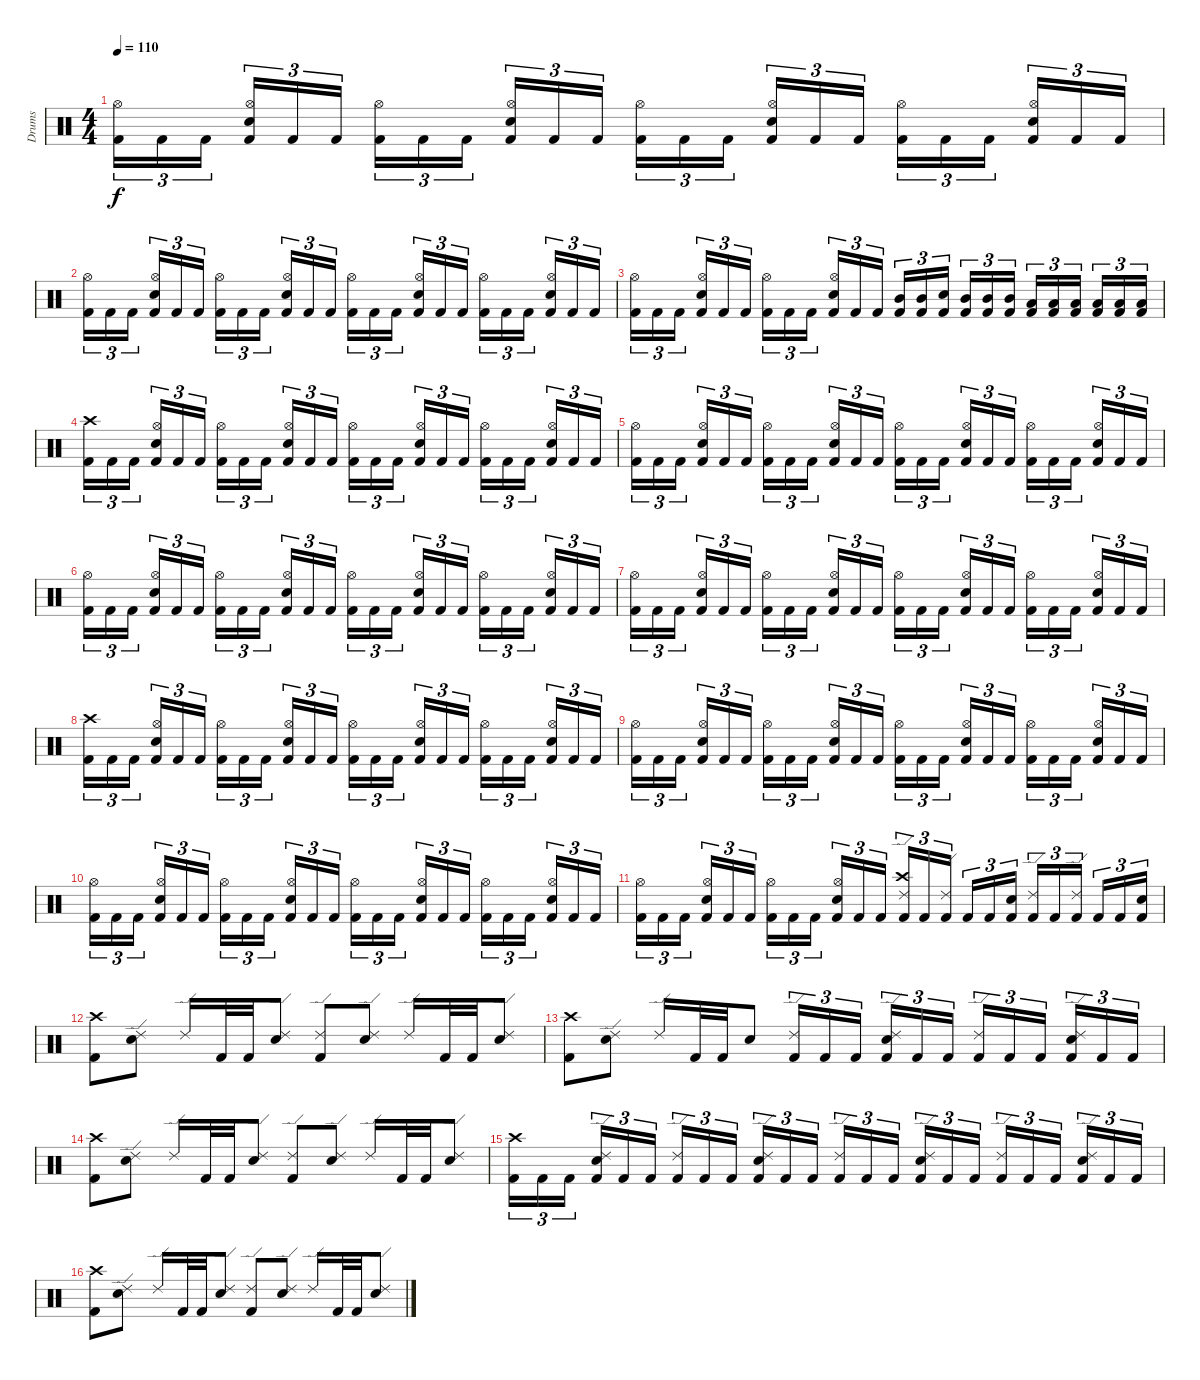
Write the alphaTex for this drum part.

\track ("Drums" "Drums") {instrument percussion}
\staff {score}
\articulation defaults
\ts (4 4)
\tempo 110
\clef neutral
\ks c
("Kick (hit) 2" "Hi-Hat (open)").16{tu (3 2) dy f} "Kick (hit) 2".16{tu (3 2)} "Kick (hit) 2".16{tu (3 2)} ("Kick (hit) 2" "Snare (hit) 2" "Hi-Hat (open)").16{tu (3 2)} "Kick (hit) 2".16{tu (3 2)} "Kick (hit) 2".16{tu (3 2)} ("Kick (hit) 2" "Hi-Hat (open)").16{tu (3 2)} "Kick (hit) 2".16{tu (3 2)} "Kick (hit) 2".16{tu (3 2)} ("Kick (hit) 2" "Snare (hit) 2" "Hi-Hat (open)").16{tu (3 2)} "Kick (hit) 2".16{tu (3 2)} "Kick (hit) 2".16{tu (3 2)} ("Kick (hit) 2" "Hi-Hat (open)").16{tu (3 2)} "Kick (hit) 2".16{tu (3 2)} "Kick (hit) 2".16{tu (3 2)} ("Kick (hit) 2" "Snare (hit) 2" "Hi-Hat (open)").16{tu (3 2)} "Kick (hit) 2".16{tu (3 2)} "Kick (hit) 2".16{tu (3 2)} ("Kick (hit) 2" "Hi-Hat (open)").16{tu (3 2)} "Kick (hit) 2".16{tu (3 2)} "Kick (hit) 2".16{tu (3 2)} ("Kick (hit) 2" "Snare (hit) 2" "Hi-Hat (open)").16{tu (3 2)} "Kick (hit) 2".16{tu (3 2)} "Kick (hit) 2".16{tu (3 2)} |
("Kick (hit) 2" "Hi-Hat (open)").16{tu (3 2)} "Kick (hit) 2".16{tu (3 2)} "Kick (hit) 2".16{tu (3 2)} ("Kick (hit) 2" "Snare (hit) 2" "Hi-Hat (open)").16{tu (3 2)} "Kick (hit) 2".16{tu (3 2)} "Kick (hit) 2".16{tu (3 2)} ("Kick (hit) 2" "Hi-Hat (open)").16{tu (3 2)} "Kick (hit) 2".16{tu (3 2)} "Kick (hit) 2".16{tu (3 2)} ("Kick (hit) 2" "Snare (hit) 2" "Hi-Hat (open)").16{tu (3 2)} "Kick (hit) 2".16{tu (3 2)} "Kick (hit) 2".16{tu (3 2)} ("Kick (hit) 2" "Hi-Hat (open)").16{tu (3 2)} "Kick (hit) 2".16{tu (3 2)} "Kick (hit) 2".16{tu (3 2)} ("Kick (hit) 2" "Snare (hit) 2" "Hi-Hat (open)").16{tu (3 2)} "Kick (hit) 2".16{tu (3 2)} "Kick (hit) 2".16{tu (3 2)} ("Kick (hit) 2" "Hi-Hat (open)").16{tu (3 2)} "Kick (hit) 2".16{tu (3 2)} "Kick (hit) 2".16{tu (3 2)} ("Kick (hit) 2" "Snare (hit) 2" "Hi-Hat (open)").16{tu (3 2)} "Kick (hit) 2".16{tu (3 2)} "Kick (hit) 2".16{tu (3 2)} |
("Kick (hit) 2" "Hi-Hat (open)").16{tu (3 2)} "Kick (hit) 2".16{tu (3 2)} "Kick (hit) 2".16{tu (3 2)} ("Kick (hit) 2" "Snare (hit) 2" "Hi-Hat (open)").16{tu (3 2)} "Kick (hit) 2".16{tu (3 2)} "Kick (hit) 2".16{tu (3 2)} ("Kick (hit) 2" "Hi-Hat (open)").16{tu (3 2)} "Kick (hit) 2".16{tu (3 2)} "Kick (hit) 2".16{tu (3 2)} ("Kick (hit) 2" "Snare (hit) 2" "Hi-Hat (open)").16{tu (3 2)} "Kick (hit) 2".16{tu (3 2)} "Kick (hit) 2".16{tu (3 2)} ("Kick (hit) 2" "Mid Tom (hit)").16{tu (3 2)} ("Kick (hit) 2" "Mid Tom (hit)").16{tu (3 2)} ("Kick (hit) 2" "Snare (hit) 2").16{tu (3 2)} ("Kick (hit) 2" "Mid Tom (hit)").16{tu (3 2)} ("Kick (hit) 2" "Mid Tom (hit)").16{tu (3 2)} ("Kick (hit) 2" "Mid Tom (hit)").16{tu (3 2)} ("Kick (hit) 2" "Low Tom (hit)").16{tu (3 2)} ("Kick (hit) 2" "Low Tom (hit)").16{tu (3 2)} ("Kick (hit) 2" "Low Tom (hit)").16{tu (3 2)} ("Kick (hit) 2" "Low Tom (hit)").16{tu (3 2)} ("Kick (hit) 2" "Low Tom (hit)").16{tu (3 2)} ("Kick (hit) 2" "Low Tom (hit)").16{tu (3 2)} |
("Kick (hit) 2" "Crash high (hit)").16{tu (3 2)} "Kick (hit) 2".16{tu (3 2)} "Kick (hit) 2".16{tu (3 2)} ("Kick (hit) 2" "Snare (hit) 2" "Hi-Hat (open)").16{tu (3 2)} "Kick (hit) 2".16{tu (3 2)} "Kick (hit) 2".16{tu (3 2)} ("Kick (hit) 2" "Hi-Hat (open)").16{tu (3 2)} "Kick (hit) 2".16{tu (3 2)} "Kick (hit) 2".16{tu (3 2)} ("Kick (hit) 2" "Snare (hit) 2" "Hi-Hat (open)").16{tu (3 2)} "Kick (hit) 2".16{tu (3 2)} "Kick (hit) 2".16{tu (3 2)} ("Kick (hit) 2" "Hi-Hat (open)").16{tu (3 2)} "Kick (hit) 2".16{tu (3 2)} "Kick (hit) 2".16{tu (3 2)} ("Kick (hit) 2" "Snare (hit) 2" "Hi-Hat (open)").16{tu (3 2)} "Kick (hit) 2".16{tu (3 2)} "Kick (hit) 2".16{tu (3 2)} ("Kick (hit) 2" "Hi-Hat (open)").16{tu (3 2)} "Kick (hit) 2".16{tu (3 2)} "Kick (hit) 2".16{tu (3 2)} ("Kick (hit) 2" "Snare (hit) 2" "Hi-Hat (open)").16{tu (3 2)} "Kick (hit) 2".16{tu (3 2)} "Kick (hit) 2".16{tu (3 2)} |
("Kick (hit) 2" "Hi-Hat (open)").16{tu (3 2)} "Kick (hit) 2".16{tu (3 2)} "Kick (hit) 2".16{tu (3 2)} ("Kick (hit) 2" "Snare (hit) 2" "Hi-Hat (open)").16{tu (3 2)} "Kick (hit) 2".16{tu (3 2)} "Kick (hit) 2".16{tu (3 2)} ("Kick (hit) 2" "Hi-Hat (open)").16{tu (3 2)} "Kick (hit) 2".16{tu (3 2)} "Kick (hit) 2".16{tu (3 2)} ("Kick (hit) 2" "Snare (hit) 2" "Hi-Hat (open)").16{tu (3 2)} "Kick (hit) 2".16{tu (3 2)} "Kick (hit) 2".16{tu (3 2)} ("Kick (hit) 2" "Hi-Hat (open)").16{tu (3 2)} "Kick (hit) 2".16{tu (3 2)} "Kick (hit) 2".16{tu (3 2)} ("Kick (hit) 2" "Snare (hit) 2" "Hi-Hat (open)").16{tu (3 2)} "Kick (hit) 2".16{tu (3 2)} "Kick (hit) 2".16{tu (3 2)} ("Kick (hit) 2" "Hi-Hat (open)").16{tu (3 2)} "Kick (hit) 2".16{tu (3 2)} "Kick (hit) 2".16{tu (3 2)} ("Kick (hit) 2" "Snare (hit) 2" "Hi-Hat (open)").16{tu (3 2)} "Kick (hit) 2".16{tu (3 2)} "Kick (hit) 2".16{tu (3 2)} |
("Kick (hit) 2" "Hi-Hat (open)").16{tu (3 2)} "Kick (hit) 2".16{tu (3 2)} "Kick (hit) 2".16{tu (3 2)} ("Kick (hit) 2" "Snare (hit) 2" "Hi-Hat (open)").16{tu (3 2)} "Kick (hit) 2".16{tu (3 2)} "Kick (hit) 2".16{tu (3 2)} ("Kick (hit) 2" "Hi-Hat (open)").16{tu (3 2)} "Kick (hit) 2".16{tu (3 2)} "Kick (hit) 2".16{tu (3 2)} ("Kick (hit) 2" "Snare (hit) 2" "Hi-Hat (open)").16{tu (3 2)} "Kick (hit) 2".16{tu (3 2)} "Kick (hit) 2".16{tu (3 2)} ("Kick (hit) 2" "Hi-Hat (open)").16{tu (3 2)} "Kick (hit) 2".16{tu (3 2)} "Kick (hit) 2".16{tu (3 2)} ("Kick (hit) 2" "Snare (hit) 2" "Hi-Hat (open)").16{tu (3 2)} "Kick (hit) 2".16{tu (3 2)} "Kick (hit) 2".16{tu (3 2)} ("Kick (hit) 2" "Hi-Hat (open)").16{tu (3 2)} "Kick (hit) 2".16{tu (3 2)} "Kick (hit) 2".16{tu (3 2)} ("Kick (hit) 2" "Snare (hit) 2" "Hi-Hat (open)").16{tu (3 2)} "Kick (hit) 2".16{tu (3 2)} "Kick (hit) 2".16{tu (3 2)} |
("Kick (hit) 2" "Hi-Hat (open)").16{tu (3 2)} "Kick (hit) 2".16{tu (3 2)} "Kick (hit) 2".16{tu (3 2)} ("Kick (hit) 2" "Snare (hit) 2" "Hi-Hat (open)").16{tu (3 2)} "Kick (hit) 2".16{tu (3 2)} "Kick (hit) 2".16{tu (3 2)} ("Kick (hit) 2" "Hi-Hat (open)").16{tu (3 2)} "Kick (hit) 2".16{tu (3 2)} "Kick (hit) 2".16{tu (3 2)} ("Kick (hit) 2" "Snare (hit) 2" "Hi-Hat (open)").16{tu (3 2)} "Kick (hit) 2".16{tu (3 2)} "Kick (hit) 2".16{tu (3 2)} ("Kick (hit) 2" "Hi-Hat (open)").16{tu (3 2)} "Kick (hit) 2".16{tu (3 2)} "Kick (hit) 2".16{tu (3 2)} ("Kick (hit) 2" "Snare (hit) 2" "Hi-Hat (open)").16{tu (3 2)} "Kick (hit) 2".16{tu (3 2)} "Kick (hit) 2".16{tu (3 2)} ("Kick (hit) 2" "Hi-Hat (open)").16{tu (3 2)} "Kick (hit) 2".16{tu (3 2)} "Kick (hit) 2".16{tu (3 2)} ("Kick (hit) 2" "Snare (hit) 2" "Hi-Hat (open)").16{tu (3 2)} "Kick (hit) 2".16{tu (3 2)} "Kick (hit) 2".16{tu (3 2)} |
("Kick (hit) 2" "Crash high (hit)").16{tu (3 2)} "Kick (hit) 2".16{tu (3 2)} "Kick (hit) 2".16{tu (3 2)} ("Kick (hit) 2" "Snare (hit) 2" "Hi-Hat (open)").16{tu (3 2)} "Kick (hit) 2".16{tu (3 2)} "Kick (hit) 2".16{tu (3 2)} ("Kick (hit) 2" "Hi-Hat (open)").16{tu (3 2)} "Kick (hit) 2".16{tu (3 2)} "Kick (hit) 2".16{tu (3 2)} ("Kick (hit) 2" "Snare (hit) 2" "Hi-Hat (open)").16{tu (3 2)} "Kick (hit) 2".16{tu (3 2)} "Kick (hit) 2".16{tu (3 2)} ("Kick (hit) 2" "Hi-Hat (open)").16{tu (3 2)} "Kick (hit) 2".16{tu (3 2)} "Kick (hit) 2".16{tu (3 2)} ("Kick (hit) 2" "Snare (hit) 2" "Hi-Hat (open)").16{tu (3 2)} "Kick (hit) 2".16{tu (3 2)} "Kick (hit) 2".16{tu (3 2)} ("Kick (hit) 2" "Hi-Hat (open)").16{tu (3 2)} "Kick (hit) 2".16{tu (3 2)} "Kick (hit) 2".16{tu (3 2)} ("Kick (hit) 2" "Snare (hit) 2" "Hi-Hat (open)").16{tu (3 2)} "Kick (hit) 2".16{tu (3 2)} "Kick (hit) 2".16{tu (3 2)} |
("Kick (hit) 2" "Hi-Hat (open)").16{tu (3 2)} "Kick (hit) 2".16{tu (3 2)} "Kick (hit) 2".16{tu (3 2)} ("Kick (hit) 2" "Snare (hit) 2" "Hi-Hat (open)").16{tu (3 2)} "Kick (hit) 2".16{tu (3 2)} "Kick (hit) 2".16{tu (3 2)} ("Kick (hit) 2" "Hi-Hat (open)").16{tu (3 2)} "Kick (hit) 2".16{tu (3 2)} "Kick (hit) 2".16{tu (3 2)} ("Kick (hit) 2" "Snare (hit) 2" "Hi-Hat (open)").16{tu (3 2)} "Kick (hit) 2".16{tu (3 2)} "Kick (hit) 2".16{tu (3 2)} ("Kick (hit) 2" "Hi-Hat (open)").16{tu (3 2)} "Kick (hit) 2".16{tu (3 2)} "Kick (hit) 2".16{tu (3 2)} ("Kick (hit) 2" "Snare (hit) 2" "Hi-Hat (open)").16{tu (3 2)} "Kick (hit) 2".16{tu (3 2)} "Kick (hit) 2".16{tu (3 2)} ("Kick (hit) 2" "Hi-Hat (open)").16{tu (3 2)} "Kick (hit) 2".16{tu (3 2)} "Kick (hit) 2".16{tu (3 2)} ("Kick (hit) 2" "Snare (hit) 2" "Hi-Hat (open)").16{tu (3 2)} "Kick (hit) 2".16{tu (3 2)} "Kick (hit) 2".16{tu (3 2)} |
("Kick (hit) 2" "Hi-Hat (open)").16{tu (3 2)} "Kick (hit) 2".16{tu (3 2)} "Kick (hit) 2".16{tu (3 2)} ("Kick (hit) 2" "Snare (hit) 2" "Hi-Hat (open)").16{tu (3 2)} "Kick (hit) 2".16{tu (3 2)} "Kick (hit) 2".16{tu (3 2)} ("Kick (hit) 2" "Hi-Hat (open)").16{tu (3 2)} "Kick (hit) 2".16{tu (3 2)} "Kick (hit) 2".16{tu (3 2)} ("Kick (hit) 2" "Snare (hit) 2" "Hi-Hat (open)").16{tu (3 2)} "Kick (hit) 2".16{tu (3 2)} "Kick (hit) 2".16{tu (3 2)} ("Kick (hit) 2" "Hi-Hat (open)").16{tu (3 2)} "Kick (hit) 2".16{tu (3 2)} "Kick (hit) 2".16{tu (3 2)} ("Kick (hit) 2" "Snare (hit) 2" "Hi-Hat (open)").16{tu (3 2)} "Kick (hit) 2".16{tu (3 2)} "Kick (hit) 2".16{tu (3 2)} ("Kick (hit) 2" "Hi-Hat (open)").16{tu (3 2)} "Kick (hit) 2".16{tu (3 2)} "Kick (hit) 2".16{tu (3 2)} ("Kick (hit) 2" "Snare (hit) 2" "Hi-Hat (open)").16{tu (3 2)} "Kick (hit) 2".16{tu (3 2)} "Kick (hit) 2".16{tu (3 2)} |
("Kick (hit) 2" "Hi-Hat (open)").16{tu (3 2)} "Kick (hit) 2".16{tu (3 2)} "Kick (hit) 2".16{tu (3 2)} ("Kick (hit) 2" "Snare (hit) 2" "Hi-Hat (open)").16{tu (3 2)} "Kick (hit) 2".16{tu (3 2)} "Kick (hit) 2".16{tu (3 2)} ("Kick (hit) 2" "Hi-Hat (open)").16{tu (3 2)} "Kick (hit) 2".16{tu (3 2)} "Kick (hit) 2".16{tu (3 2)} ("Kick (hit) 2" "Snare (hit) 2" "Hi-Hat (open)").16{tu (3 2)} "Kick (hit) 2".16{tu (3 2)} "Kick (hit) 2".16{tu (3 2)} ("Kick (hit) 2" "Ride (edge) 2" "Crash high (hit)").16{tu (3 2)} "Kick (hit) 2".16{tu (3 2)} ("Kick (hit) 2" "Ride (edge) 2").16{tu (3 2)} "Kick (hit) 2".16{tu (3 2)} "Kick (hit) 2".16{tu (3 2)} ("Kick (hit) 2" "Snare (hit) 2").16{tu (3 2)} ("Kick (hit) 2" "Ride (edge) 2").16{tu (3 2)} "Kick (hit) 2".16{tu (3 2)} ("Kick (hit) 2" "Ride (edge) 2").16{tu (3 2)} "Kick (hit) 2".16{tu (3 2)} "Kick (hit) 2".16{tu (3 2)} ("Kick (hit) 2" "Snare (hit) 2").16{tu (3 2)} |
("Kick (hit) 2" "Crash high (hit)").8 ("Snare (hit) 2" "Ride (edge) 2").8 "Ride (edge) 2".16 "Kick (hit) 2".32 "Kick (hit) 2".32 ("Snare (hit) 2" "Ride (edge) 2").8 ("Kick (hit) 2" "Ride (edge) 2").8 ("Snare (hit) 2" "Ride (edge) 2").8 "Ride (edge) 2".16 "Kick (hit) 2".32 "Kick (hit) 2".32 ("Snare (hit) 2" "Ride (edge) 2").8 |
("Kick (hit) 2" "Crash high (hit)").8 ("Snare (hit) 2" "Ride (edge) 2").8 "Ride (edge) 2".16 "Kick (hit) 2".32 "Kick (hit) 2".32 "Snare (hit) 2".8 ("Kick (hit) 2" "Ride (edge) 2").16{tu (3 2)} "Kick (hit) 2".16{tu (3 2)} "Kick (hit) 2".16{tu (3 2)} ("Kick (hit) 2" "Snare (hit) 2" "Ride (edge) 2").16{tu (3 2)} "Kick (hit) 2".16{tu (3 2)} "Kick (hit) 2".16{tu (3 2)} ("Kick (hit) 2" "Ride (edge) 2").16{tu (3 2)} "Kick (hit) 2".16{tu (3 2)} "Kick (hit) 2".16{tu (3 2)} ("Kick (hit) 2" "Snare (hit) 2" "Ride (edge) 2").16{tu (3 2)} "Kick (hit) 2".16{tu (3 2)} "Kick (hit) 2".16{tu (3 2)} |
("Kick (hit) 2" "Crash high (hit)").8 ("Snare (hit) 2" "Ride (edge) 2").8 "Ride (edge) 2".16 "Kick (hit) 2".32 "Kick (hit) 2".32 ("Snare (hit) 2" "Ride (edge) 2").8 ("Kick (hit) 2" "Ride (edge) 2").8 ("Snare (hit) 2" "Ride (edge) 2").8 "Ride (edge) 2".16 "Kick (hit) 2".32 "Kick (hit) 2".32 ("Snare (hit) 2" "Ride (edge) 2").8 |
("Kick (hit) 2" "Crash high (hit)").16{tu (3 2)} "Kick (hit) 2".16{tu (3 2)} "Kick (hit) 2".16{tu (3 2)} ("Kick (hit) 2" "Snare (hit) 2" "Ride (edge) 2").16{tu (3 2)} "Kick (hit) 2".16{tu (3 2)} "Kick (hit) 2".16{tu (3 2)} ("Kick (hit) 2" "Ride (edge) 2").16{tu (3 2)} "Kick (hit) 2".16{tu (3 2)} "Kick (hit) 2".16{tu (3 2)} ("Kick (hit) 2" "Snare (hit) 2" "Ride (edge) 2").16{tu (3 2)} "Kick (hit) 2".16{tu (3 2)} "Kick (hit) 2".16{tu (3 2)} ("Kick (hit) 2" "Ride (edge) 2").16{tu (3 2)} "Kick (hit) 2".16{tu (3 2)} "Kick (hit) 2".16{tu (3 2)} ("Kick (hit) 2" "Snare (hit) 2" "Ride (edge) 2").16{tu (3 2)} "Kick (hit) 2".16{tu (3 2)} "Kick (hit) 2".16{tu (3 2)} ("Kick (hit) 2" "Ride (edge) 2").16{tu (3 2)} "Kick (hit) 2".16{tu (3 2)} "Kick (hit) 2".16{tu (3 2)} ("Kick (hit) 2" "Snare (hit) 2" "Ride (edge) 2").16{tu (3 2)} "Kick (hit) 2".16{tu (3 2)} "Kick (hit) 2".16{tu (3 2)} |
("Kick (hit) 2" "Crash high (hit)").8 ("Snare (hit) 2" "Ride (edge) 2").8 "Ride (edge) 2".16 "Kick (hit) 2".32 "Kick (hit) 2".32 ("Snare (hit) 2" "Ride (edge) 2").8 ("Kick (hit) 2" "Ride (edge) 2").8 ("Snare (hit) 2" "Ride (edge) 2").8 "Ride (edge) 2".16 "Kick (hit) 2".32 "Kick (hit) 2".32 ("Snare (hit) 2" "Ride (edge) 2").8
